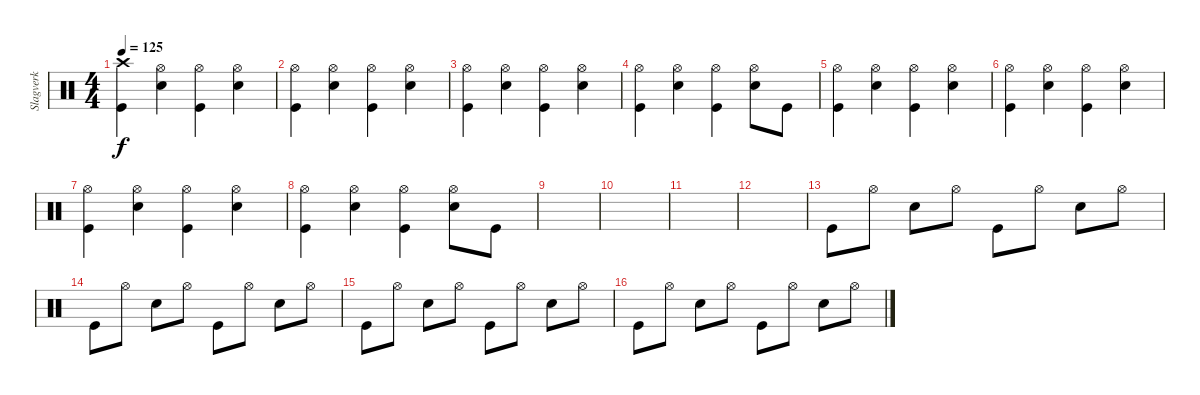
\track ("Slagverk" "Slagverk") {instrument percussion}
\staff {score}
\articulation defaults
\ts (4 4)
\tempo 125
\clef neutral
\ks c
("Crash high (hit)" "Kick (hit)").4{dy f} ("Hi-Hat (open)" "Snare (hit) 2").4 ("Hi-Hat (open)" "Kick (hit)").4 ("Hi-Hat (open)" "Snare (hit) 2").4 |
("Hi-Hat (open)" "Kick (hit)").4 ("Hi-Hat (open)" "Snare (hit) 2").4 ("Hi-Hat (open)" "Kick (hit)").4 ("Hi-Hat (open)" "Snare (hit) 2").4 |
("Hi-Hat (open)" "Kick (hit)").4 ("Hi-Hat (open)" "Snare (hit) 2").4 ("Hi-Hat (open)" "Kick (hit)").4 ("Hi-Hat (open)" "Snare (hit) 2").4 |
("Hi-Hat (open)" "Kick (hit)").4 ("Hi-Hat (open)" "Snare (hit) 2").4 ("Hi-Hat (open)" "Kick (hit)").4 ("Hi-Hat (open)" "Snare (hit) 2").8 "Kick (hit)".8 |
("Hi-Hat (open)" "Kick (hit)").4 ("Hi-Hat (open)" "Snare (hit) 2").4 ("Hi-Hat (open)" "Kick (hit)").4 ("Hi-Hat (open)" "Snare (hit) 2").4 |
("Hi-Hat (open)" "Kick (hit)").4 ("Hi-Hat (open)" "Snare (hit) 2").4 ("Hi-Hat (open)" "Kick (hit)").4 ("Hi-Hat (open)" "Snare (hit) 2").4 |
("Hi-Hat (open)" "Kick (hit)").4 ("Hi-Hat (open)" "Snare (hit) 2").4 ("Hi-Hat (open)" "Kick (hit)").4 ("Hi-Hat (open)" "Snare (hit) 2").4 |
("Hi-Hat (open)" "Kick (hit)").4 ("Hi-Hat (open)" "Snare (hit) 2").4 ("Hi-Hat (open)" "Kick (hit)").4 ("Hi-Hat (open)" "Snare (hit) 2").8 "Kick (hit)".8 |
|
|
|
|
"Kick (hit)".8 "Hi-Hat (open)".8 "Snare (hit) 2".8 "Hi-Hat (open)".8 "Kick (hit)".8 "Hi-Hat (open)".8 "Snare (hit) 2".8 "Hi-Hat (open)".8 |
"Kick (hit)".8 "Hi-Hat (open)".8 "Snare (hit) 2".8 "Hi-Hat (open)".8 "Kick (hit)".8 "Hi-Hat (open)".8 "Snare (hit) 2".8 "Hi-Hat (open)".8 |
"Kick (hit)".8 "Hi-Hat (open)".8 "Snare (hit) 2".8 "Hi-Hat (open)".8 "Kick (hit)".8 "Hi-Hat (open)".8 "Snare (hit) 2".8 "Hi-Hat (open)".8 |
"Kick (hit)".8 "Hi-Hat (open)".8 "Snare (hit) 2".8 "Hi-Hat (open)".8 "Kick (hit)".8 "Hi-Hat (open)".8 "Snare (hit) 2".8 "Hi-Hat (open)".8
